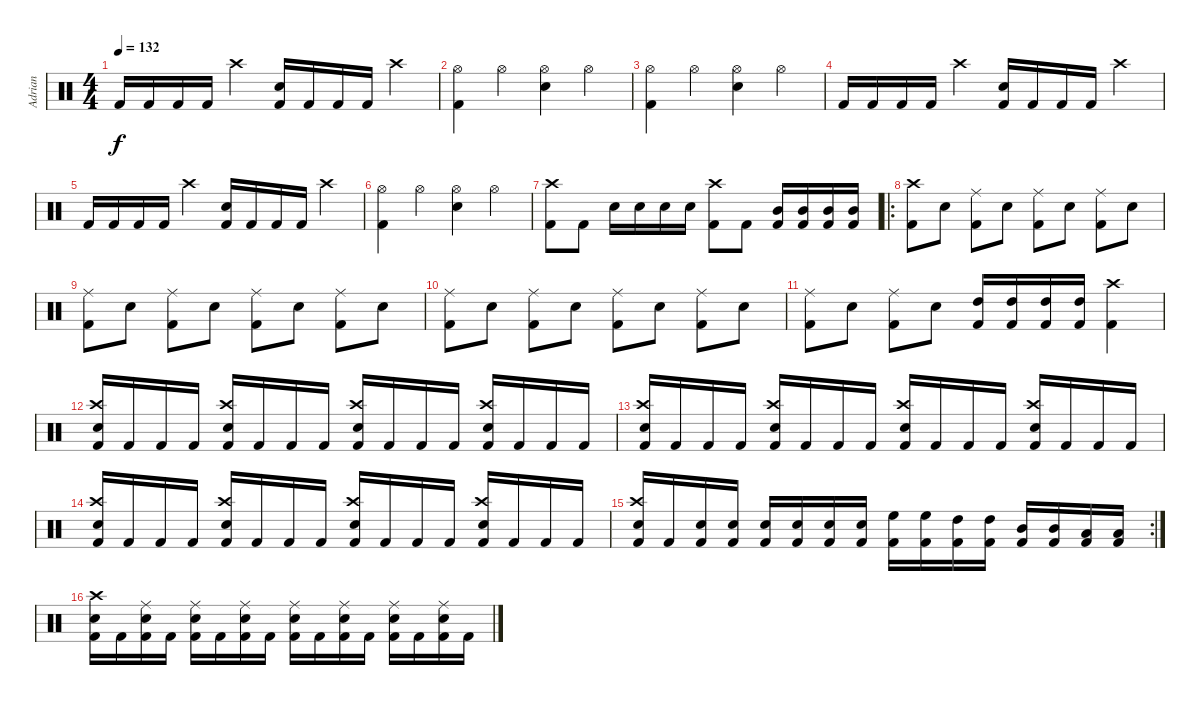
\track ("Adrian" "Adrian") {instrument percussion}
\staff {score}
\articulation defaults
\ts (4 4)
\tempo 132
\clef neutral
\ks c "Kick (hit) 2".16{dy f} "Kick (hit) 2".16 "Kick (hit) 2".16 "Kick (hit) 2".16 "Crash high (hit)".4
("Kick (hit) 2" "Snare (hit) 2").16 "Kick (hit) 2".16 "Kick (hit) 2".16 "Kick (hit) 2".16 "Crash high (hit)".4 |
("Kick (hit) 2" "Hi-Hat (open)").4 "Hi-Hat (open)".4 ("Snare (hit) 2" "Hi-Hat (open)").4 "Hi-Hat (open)".4 |
("Kick (hit) 2" "Hi-Hat (open)").4 "Hi-Hat (open)".4 ("Snare (hit) 2" "Hi-Hat (open)").4 "Hi-Hat (open)".4 |
"Kick (hit) 2".16 "Kick (hit) 2".16 "Kick (hit) 2".16 "Kick (hit) 2".16 "Crash high (hit)".4 ("Kick (hit) 2" "Snare (hit) 2").16 "Kick (hit) 2".16 "Kick (hit) 2".16 "Kick (hit) 2".16 "Crash high (hit)".4 |
"Kick (hit) 2".16 "Kick (hit) 2".16 "Kick (hit) 2".16 "Kick (hit) 2".16 "Crash high (hit)".4 ("Kick (hit) 2" "Snare (hit) 2").16 "Kick (hit) 2".16 "Kick (hit) 2".16 "Kick (hit) 2".16 "Crash high (hit)".4 |
("Kick (hit) 2" "Hi-Hat (open)").4 "Hi-Hat (open)".4 ("Snare (hit) 2" "Hi-Hat (open)").4 "Hi-Hat (open)".4 |
("Kick (hit) 2" "Crash high (hit)").8 "Kick (hit) 2".8 "Snare (hit) 2".16 "Snare (hit) 2".16 "Snare (hit) 2".16 "Snare (hit) 2".16 ("Kick (hit) 2" "Crash high (hit)").8 "Kick (hit) 2".8 ("Kick (hit) 2" "Mid Tom (hit)").16 ("Kick (hit) 2" "Mid Tom (hit)").16 ("Kick (hit) 2" "Mid Tom (hit)").16 ("Kick (hit) 2" "Mid Tom (hit)").16 |
\ro
("Kick (hit) 2" "Crash high (hit)").8 "Snare (hit) 2".8 ("Kick (hit) 2" "Ride (middle)").8 "Snare (hit) 2".8 ("Kick (hit) 2" "Ride (middle)").8 "Snare (hit) 2".8 ("Kick (hit) 2" "Ride (middle)").8 "Snare (hit) 2".8 |
("Kick (hit) 2" "Ride (middle)").8 "Snare (hit) 2".8 ("Kick (hit) 2" "Ride (middle)").8 "Snare (hit) 2".8 ("Kick (hit) 2" "Ride (middle)").8 "Snare (hit) 2".8 ("Kick (hit) 2" "Ride (middle)").8 "Snare (hit) 2".8 |
("Kick (hit) 2" "Ride (middle)").8 "Snare (hit) 2".8 ("Kick (hit) 2" "Ride (middle)").8 "Snare (hit) 2".8 ("Kick (hit) 2" "Ride (middle)").8 "Snare (hit) 2".8 ("Kick (hit) 2" "Ride (middle)").8 "Snare (hit) 2".8 |
("Kick (hit) 2" "Ride (middle)").8 "Snare (hit) 2".8 ("Kick (hit) 2" "Ride (middle)").8 "Snare (hit) 2".8 ("Kick (hit) 2" "High Tom (hit)").16 ("Kick (hit) 2" "High Tom (hit)").16 ("Kick (hit) 2" "High Tom (hit)").16 ("Kick (hit) 2" "High Tom (hit)").16 ("Kick (hit) 2" "Crash high (hit)").4 |
("Kick (hit) 2" "Snare (hit) 2" "Crash high (hit)").16 "Kick (hit) 2".16 "Kick (hit) 2".16 "Kick (hit) 2".16 ("Kick (hit) 2" "Snare (hit) 2" "Crash high (hit)").16 "Kick (hit) 2".16 "Kick (hit) 2".16 "Kick (hit) 2".16 ("Kick (hit) 2" "Snare (hit) 2" "Crash high (hit)").16 "Kick (hit) 2".16 "Kick (hit) 2".16 "Kick (hit) 2".16 ("Kick (hit) 2" "Snare (hit) 2" "Crash high (hit)").16 "Kick (hit) 2".16 "Kick (hit) 2".16 "Kick (hit) 2".16 |
("Kick (hit) 2" "Snare (hit) 2" "Crash high (hit)").16 "Kick (hit) 2".16 "Kick (hit) 2".16 "Kick (hit) 2".16 ("Kick (hit) 2" "Snare (hit) 2" "Crash high (hit)").16 "Kick (hit) 2".16 "Kick (hit) 2".16 "Kick (hit) 2".16 ("Kick (hit) 2" "Snare (hit) 2" "Crash high (hit)").16 "Kick (hit) 2".16 "Kick (hit) 2".16 "Kick (hit) 2".16 ("Kick (hit) 2" "Snare (hit) 2" "Crash high (hit)").16 "Kick (hit) 2".16 "Kick (hit) 2".16 "Kick (hit) 2".16 |
("Kick (hit) 2" "Snare (hit) 2" "Crash high (hit)").16 "Kick (hit) 2".16 "Kick (hit) 2".16 "Kick (hit) 2".16 ("Kick (hit) 2" "Snare (hit) 2" "Crash high (hit)").16 "Kick (hit) 2".16 "Kick (hit) 2".16 "Kick (hit) 2".16 ("Kick (hit) 2" "Snare (hit) 2" "Crash high (hit)").16 "Kick (hit) 2".16 "Kick (hit) 2".16 "Kick (hit) 2".16 ("Kick (hit) 2" "Snare (hit) 2" "Crash high (hit)").16 "Kick (hit) 2".16 "Kick (hit) 2".16 "Kick (hit) 2".16 |
\rc 2
("Kick (hit) 2" "Snare (hit) 2" "Crash high (hit)").16 "Kick (hit) 2".16 ("Kick (hit) 2" "Snare (hit) 2").16 ("Kick (hit) 2" "Snare (hit) 2").16 ("Kick (hit) 2" "Snare (hit) 2").16 ("Kick (hit) 2" "Snare (hit) 2").16 ("Kick (hit) 2" "Snare (hit) 2").16 ("Kick (hit) 2" "Snare (hit) 2").16 ("Kick (hit) 2" "High Floor Tom (hit)").16 ("Kick (hit) 2" "High Floor Tom (hit)").16 ("Kick (hit) 2" "High Tom (hit)").16 ("Kick (hit) 2" "High Tom (hit)").16 ("Kick (hit) 2" "Mid Tom (hit)").16 ("Kick (hit) 2" "Mid Tom (hit)").16 ("Kick (hit) 2" "Low Tom (hit)").16 ("Kick (hit) 2" "Low Tom (hit)").16 |
("Kick (hit) 2" "Snare (hit) 2" "Crash high (hit)").16 "Kick (hit) 2".16 ("Kick (hit) 2" "Snare (hit) 2" "Ride (middle)").16 "Kick (hit) 2".16 ("Kick (hit) 2" "Snare (hit) 2" "Ride (middle)").16 "Kick (hit) 2".16 ("Kick (hit) 2" "Snare (hit) 2" "Ride (middle)").16 "Kick (hit) 2".16 ("Kick (hit) 2" "Snare (hit) 2" "Ride (middle)").16 "Kick (hit) 2".16 ("Kick (hit) 2" "Snare (hit) 2" "Ride (middle)").16 "Kick (hit) 2".16 ("Kick (hit) 2" "Snare (hit) 2" "Ride (middle)").16 "Kick (hit) 2".16 ("Kick (hit) 2" "Snare (hit) 2" "Ride (middle)").16 "Kick (hit) 2".16
